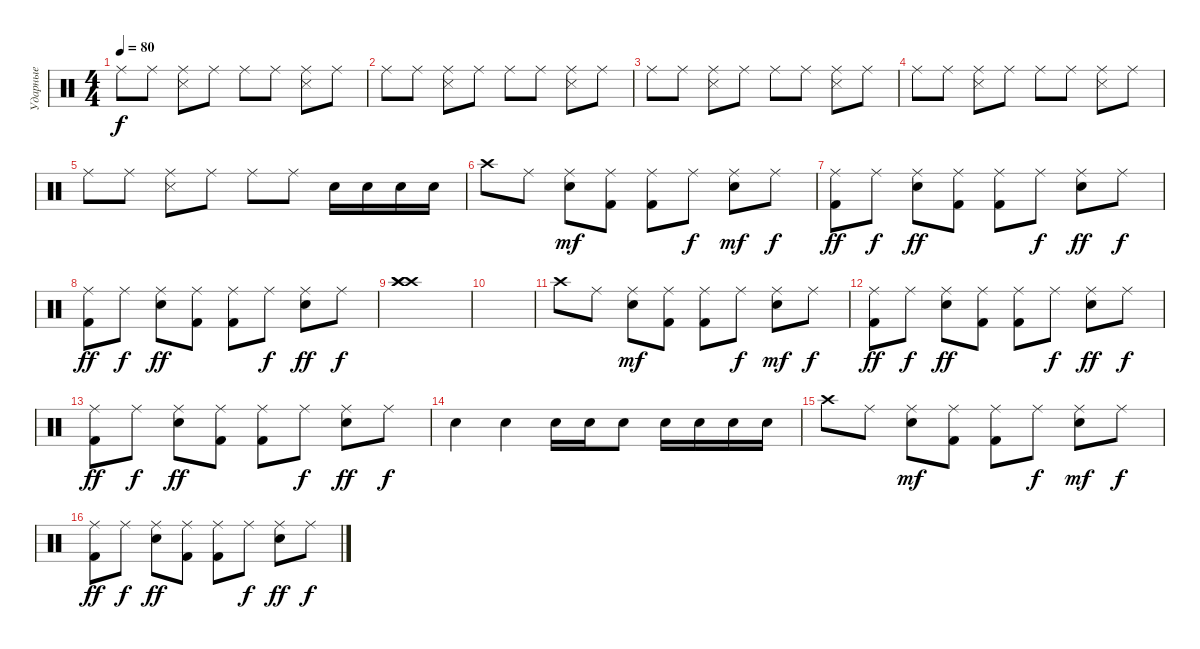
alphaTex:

\track ("Ударные" "Ударные") {instrument percussion}
\staff {score}
\articulation defaults
\ts (4 4)
\tempo 80
\clef neutral
\ks c "Ride (middle)".8{dy f} "Ride (middle)".8
("Ride (middle)" "Snare (side stick) 3").8 "Ride (middle)".8 "Ride (middle)".8 "Ride (middle)".8 ("Ride (middle)" "Snare (side stick) 3").8 "Ride (middle)".8 |
"Ride (middle)".8 "Ride (middle)".8 ("Ride (middle)" "Snare (side stick) 3").8 "Ride (middle)".8 "Ride (middle)".8 "Ride (middle)".8 ("Ride (middle)" "Snare (side stick) 3").8 "Ride (middle)".8 |
"Ride (middle)".8 "Ride (middle)".8 ("Ride (middle)" "Snare (side stick) 3").8 "Ride (middle)".8 "Ride (middle)".8 "Ride (middle)".8 ("Ride (middle)" "Snare (side stick) 3").8 "Ride (middle)".8 |
"Ride (middle)".8 "Ride (middle)".8 ("Ride (middle)" "Snare (side stick) 3").8 "Ride (middle)".8 "Ride (middle)".8 "Ride (middle)".8 ("Ride (middle)" "Snare (side stick) 3").8 "Ride (middle)".8 |
"Ride (middle)".8 "Ride (middle)".8 ("Ride (middle)" "Snare (side stick) 3").8 "Ride (middle)".8 "Ride (middle)".8 "Ride (middle)".8 "Snare (hit) 2".16 "Snare (hit) 2".16 "Snare (hit) 2".16 "Snare (hit) 2".16 |
"Crash high (hit)".8 "Ride (middle)".8 ("Snare (hit) 2" "Ride (middle)").8{dy mf} ("Kick (hit) 2" "Ride (middle)").8 ("Kick (hit) 2" "Ride (middle)").8 "Ride (middle)".8{dy f} ("Snare (hit) 2" "Ride (middle)").8{dy mf} "Ride (middle)".8{dy f} |
("Kick (hit) 2" "Ride (middle)").8{dy ff} "Ride (middle)".8{dy f} ("Snare (hit) 2" "Ride (middle)").8{dy ff} ("Kick (hit) 2" "Ride (middle)").8 ("Kick (hit) 2" "Ride (middle)").8 "Ride (middle)".8{dy f} ("Snare (hit) 2" "Ride (middle)").8{dy ff} "Ride (middle)".8{dy f} |
("Kick (hit) 2" "Ride (middle)").8{dy ff} "Ride (middle)".8{dy f} ("Snare (hit) 2" "Ride (middle)").8{dy ff} ("Kick (hit) 2" "Ride (middle)").8 ("Kick (hit) 2" "Ride (middle)").8 "Ride (middle)".8{dy f} ("Snare (hit) 2" "Ride (middle)").8{dy ff} "Ride (middle)".8{dy f} |
("Crash high (hit)" "Crash high (hit)" "Crash high (hit)").1 |
|
"Crash high (hit)".8 "Ride (middle)".8 ("Snare (hit) 2" "Ride (middle)").8{dy mf} ("Kick (hit) 2" "Ride (middle)").8 ("Kick (hit) 2" "Ride (middle)").8 "Ride (middle)".8{dy f} ("Snare (hit) 2" "Ride (middle)").8{dy mf} "Ride (middle)".8{dy f} |
("Kick (hit) 2" "Ride (middle)").8{dy ff} "Ride (middle)".8{dy f} ("Snare (hit) 2" "Ride (middle)").8{dy ff} ("Kick (hit) 2" "Ride (middle)").8 ("Kick (hit) 2" "Ride (middle)").8 "Ride (middle)".8{dy f} ("Snare (hit) 2" "Ride (middle)").8{dy ff} "Ride (middle)".8{dy f} |
("Kick (hit) 2" "Ride (middle)").8{dy ff} "Ride (middle)".8{dy f} ("Snare (hit) 2" "Ride (middle)").8{dy ff} ("Kick (hit) 2" "Ride (middle)").8 ("Kick (hit) 2" "Ride (middle)").8 "Ride (middle)".8{dy f} ("Snare (hit) 2" "Ride (middle)").8{dy ff} "Ride (middle)".8{dy f} |
"Snare (hit) 2".4 "Snare (hit) 2".4 "Snare (hit) 2".16 "Snare (hit) 2".16 "Snare (hit) 2".8 "Snare (hit) 2".16 "Snare (hit) 2".16 "Snare (hit) 2".16 "Snare (hit) 2".16 |
"Crash high (hit)".8 "Ride (middle)".8 ("Snare (hit) 2" "Ride (middle)").8{dy mf} ("Kick (hit) 2" "Ride (middle)").8 ("Kick (hit) 2" "Ride (middle)").8 "Ride (middle)".8{dy f} ("Snare (hit) 2" "Ride (middle)").8{dy mf} "Ride (middle)".8{dy f} |
("Kick (hit) 2" "Ride (middle)").8{dy ff} "Ride (middle)".8{dy f} ("Snare (hit) 2" "Ride (middle)").8{dy ff} ("Kick (hit) 2" "Ride (middle)").8 ("Kick (hit) 2" "Ride (middle)").8 "Ride (middle)".8{dy f} ("Snare (hit) 2" "Ride (middle)").8{dy ff} "Ride (middle)".8{dy f}
